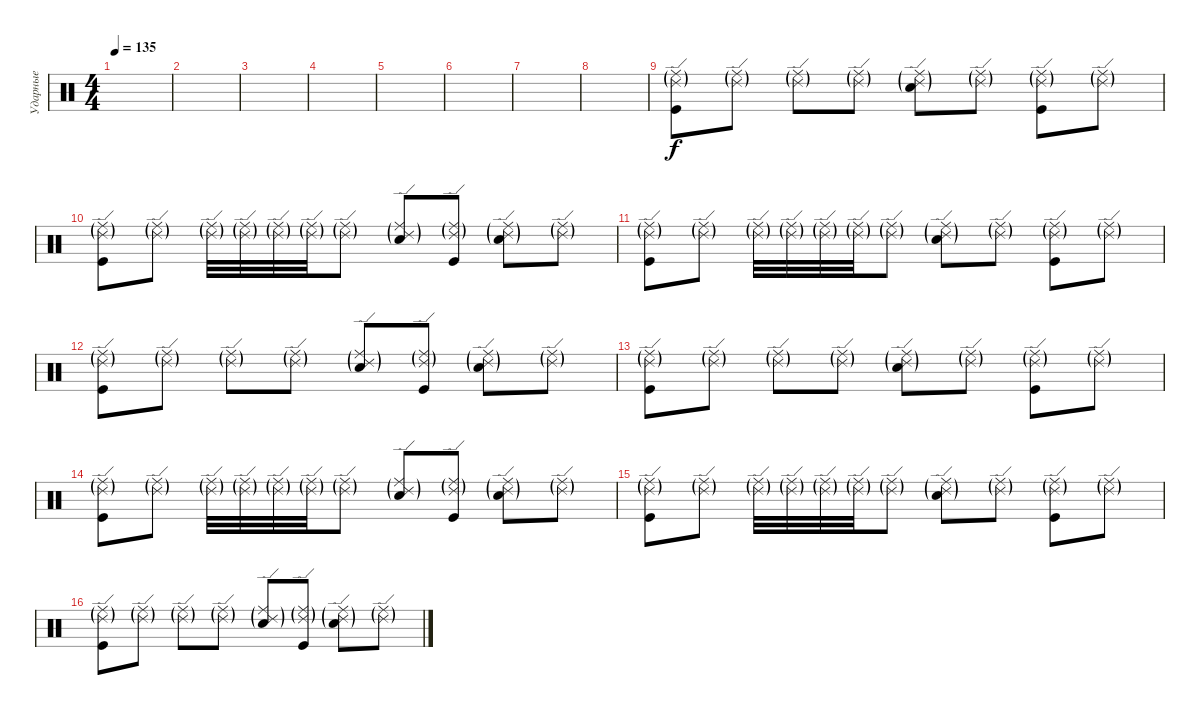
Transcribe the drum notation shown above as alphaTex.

\track ("Ударные" "Ударные") {instrument percussion}
\staff {score}
\articulation defaults
\ts (4 4)
\tempo 135
\clef neutral
\ks c
|
|
|
|
|
|
|
|
("Ride (edge) 2"{g} "Ride (middle)"{g} "Kick (hit)").8 ("Ride (edge) 2"{g} "Ride (middle)"{g}).8 ("Ride (edge) 2"{g} "Ride (middle)"{g}).8 ("Ride (edge) 2"{g} "Ride (middle)"{g}).8 ("Ride (edge) 2"{g} "Ride (middle)"{g} "Electric Snare (hit)"{g}).8 ("Ride (edge) 2"{g} "Ride (middle)"{g}).8 ("Ride (edge) 2"{g} "Ride (middle)"{g} "Kick (hit)").8 ("Ride (edge) 2"{g} "Ride (middle)"{g}).8 |
("Ride (edge) 2"{g} "Ride (middle)"{g} "Kick (hit)").8 ("Ride (edge) 2"{g} "Ride (middle)"{g}).8 ("Ride (edge) 2"{g} "Ride (middle)"{g}).32 ("Ride (edge) 2"{g} "Ride (middle)"{g}).32 ("Ride (edge) 2"{g} "Ride (middle)"{g}).32 ("Ride (edge) 2"{g} "Ride (middle)"{g}).32 ("Ride (edge) 2"{g} "Ride (middle)"{g}).8 ("Ride (edge) 2"{g} "Ride (middle)"{g} "Electric Snare (hit)"{g}).8 ("Ride (edge) 2"{g} "Ride (middle)"{g} "Kick (hit)").8 ("Ride (edge) 2"{g} "Ride (middle)"{g} "Electric Snare (hit)"{g}).8 ("Ride (edge) 2"{g} "Ride (middle)"{g}).8 |
("Ride (edge) 2"{g} "Ride (middle)"{g} "Kick (hit)").8 ("Ride (edge) 2"{g} "Ride (middle)"{g}).8 ("Ride (edge) 2"{g} "Ride (middle)"{g}).32 ("Ride (edge) 2"{g} "Ride (middle)"{g}).32 ("Ride (edge) 2"{g} "Ride (middle)"{g}).32 ("Ride (edge) 2"{g} "Ride (middle)"{g}).32 ("Ride (edge) 2"{g} "Ride (middle)"{g}).8 ("Ride (edge) 2"{g} "Ride (middle)"{g} "Electric Snare (hit)"{g}).8 ("Ride (edge) 2"{g} "Ride (middle)"{g}).8 ("Ride (edge) 2"{g} "Ride (middle)"{g} "Kick (hit)").8 ("Ride (edge) 2"{g} "Ride (middle)"{g}).8 |
("Ride (edge) 2"{g} "Ride (middle)"{g} "Kick (hit)").8 ("Ride (edge) 2"{g} "Ride (middle)"{g}).8 ("Ride (edge) 2"{g} "Ride (middle)"{g}).8 ("Ride (edge) 2"{g} "Ride (middle)"{g}).8 ("Ride (edge) 2"{g} "Ride (middle)"{g} "Electric Snare (hit)"{g}).8 ("Ride (edge) 2"{g} "Ride (middle)"{g} "Kick (hit)").8 ("Ride (edge) 2"{g} "Ride (middle)"{g} "Electric Snare (hit)"{g}).8 ("Ride (edge) 2"{g} "Ride (middle)"{g}).8 |
("Ride (edge) 2"{g} "Ride (middle)"{g} "Kick (hit)").8 ("Ride (edge) 2"{g} "Ride (middle)"{g}).8 ("Ride (edge) 2"{g} "Ride (middle)"{g}).8 ("Ride (edge) 2"{g} "Ride (middle)"{g}).8 ("Ride (edge) 2"{g} "Ride (middle)"{g} "Electric Snare (hit)"{g}).8 ("Ride (edge) 2"{g} "Ride (middle)"{g}).8 ("Ride (edge) 2"{g} "Ride (middle)"{g} "Kick (hit)").8 ("Ride (edge) 2"{g} "Ride (middle)"{g}).8 |
("Ride (edge) 2"{g} "Ride (middle)"{g} "Kick (hit)").8 ("Ride (edge) 2"{g} "Ride (middle)"{g}).8 ("Ride (edge) 2"{g} "Ride (middle)"{g}).32 ("Ride (edge) 2"{g} "Ride (middle)"{g}).32 ("Ride (edge) 2"{g} "Ride (middle)"{g}).32 ("Ride (edge) 2"{g} "Ride (middle)"{g}).32 ("Ride (edge) 2"{g} "Ride (middle)"{g}).8 ("Ride (edge) 2"{g} "Ride (middle)"{g} "Electric Snare (hit)"{g}).8 ("Ride (edge) 2"{g} "Ride (middle)"{g} "Kick (hit)").8 ("Ride (edge) 2"{g} "Ride (middle)"{g} "Electric Snare (hit)"{g}).8 ("Ride (edge) 2"{g} "Ride (middle)"{g}).8 |
("Ride (edge) 2"{g} "Ride (middle)"{g} "Kick (hit)").8 ("Ride (edge) 2"{g} "Ride (middle)"{g}).8 ("Ride (edge) 2"{g} "Ride (middle)"{g}).32 ("Ride (edge) 2"{g} "Ride (middle)"{g}).32 ("Ride (edge) 2"{g} "Ride (middle)"{g}).32 ("Ride (edge) 2"{g} "Ride (middle)"{g}).32 ("Ride (edge) 2"{g} "Ride (middle)"{g}).8 ("Ride (edge) 2"{g} "Ride (middle)"{g} "Electric Snare (hit)"{g}).8 ("Ride (edge) 2"{g} "Ride (middle)"{g}).8 ("Ride (edge) 2"{g} "Ride (middle)"{g} "Kick (hit)").8 ("Ride (edge) 2"{g} "Ride (middle)"{g}).8 |
("Ride (edge) 2"{g} "Ride (middle)"{g} "Kick (hit)").8 ("Ride (edge) 2"{g} "Ride (middle)"{g}).8 ("Ride (edge) 2"{g} "Ride (middle)"{g}).8 ("Ride (edge) 2"{g} "Ride (middle)"{g}).8 ("Ride (edge) 2"{g} "Ride (middle)"{g} "Electric Snare (hit)"{g}).8 ("Ride (edge) 2"{g} "Ride (middle)"{g} "Kick (hit)").8 ("Ride (edge) 2"{g} "Ride (middle)"{g} "Electric Snare (hit)"{g}).8 ("Ride (edge) 2"{g} "Ride (middle)"{g}).8
